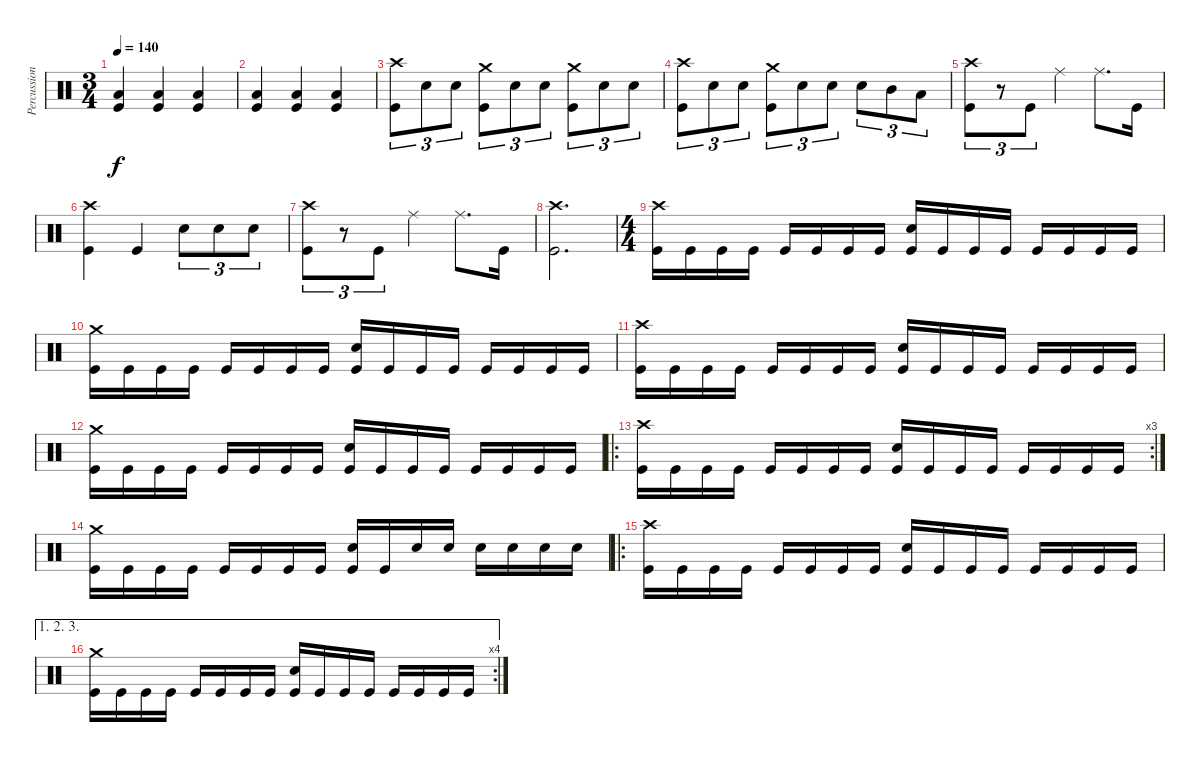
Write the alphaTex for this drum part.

\track ("Percussion" "Percussion") {instrument percussion}
\staff {score}
\articulation defaults
\ts (3 4)
\tempo 140
\clef neutral
\ks c
("Low Tom (hit)" "Kick (hit)").4{dy f} ("Low Tom (hit)" "Kick (hit)").4 ("Low Tom (hit)" "Kick (hit)").4 |
("Low Tom (hit)" "Kick (hit)").4 ("Low Tom (hit)" "Kick (hit)").4 ("Low Tom (hit)" "Kick (hit)").4 |
("Crash high (hit)" "Kick (hit)").8{tu (3 2)} "Snare (hit) 2".8{tu (3 2)} "Snare (hit) 2".8{tu (3 2)} ("Crash medium (hit)" "Kick (hit)").8{tu (3 2)} "Snare (hit) 2".8{tu (3 2)} "Snare (hit) 2".8{tu (3 2)} ("Crash medium (hit)" "Kick (hit)").8{tu (3 2)} "Snare (hit) 2".8{tu (3 2)} "Snare (hit) 2".8{tu (3 2)} |
("Crash high (hit)" "Kick (hit)").8{tu (3 2)} "Snare (hit) 2".8{tu (3 2)} "Snare (hit) 2".8{tu (3 2)} ("Crash medium (hit)" "Kick (hit)").8{tu (3 2)} "Snare (hit) 2".8{tu (3 2)} "Snare (hit) 2".8{tu (3 2)} "Snare (hit) 2".8{tu (3 2)} "Mid Tom (hit)".8{tu (3 2)} "Low Tom (hit)".8{tu (3 2)} |
("Crash high (hit)" "Kick (hit)").8{tu (3 2)} r.8{tu (3 2)} "Kick (hit)".8{tu (3 2)} "Ride (middle)".4 "Ride (middle)".8{d} "Kick (hit)".16 |
("Crash high (hit)" "Kick (hit)").4 "Kick (hit)".4 "Snare (hit) 2".8{tu (3 2)} "Snare (hit) 2".8{tu (3 2)} "Snare (hit) 2".8{tu (3 2)} |
("Crash high (hit)" "Kick (hit)").8{tu (3 2)} r.8{tu (3 2)} "Kick (hit)".8{tu (3 2)} "Ride (middle)".4 "Ride (middle)".8{d} "Kick (hit)".16 |
("Crash high (hit)" "Kick (hit)").2{d} |
\ts (4 4)
("Crash high (hit)" "Kick (hit)").16 "Kick (hit)".16 "Kick (hit)".16 "Kick (hit)".16 "Kick (hit)".16 "Kick (hit)".16 "Kick (hit)".16 "Kick (hit)".16 ("Snare (hit) 2" "Kick (hit)").16 "Kick (hit)".16 "Kick (hit)".16 "Kick (hit)".16 "Kick (hit)".16 "Kick (hit)".16 "Kick (hit)".16 "Kick (hit)".16 |
("Crash medium (hit)" "Kick (hit)").16 "Kick (hit)".16 "Kick (hit)".16 "Kick (hit)".16 "Kick (hit)".16 "Kick (hit)".16 "Kick (hit)".16 "Kick (hit)".16 ("Snare (hit) 2" "Kick (hit)").16 "Kick (hit)".16 "Kick (hit)".16 "Kick (hit)".16 "Kick (hit)".16 "Kick (hit)".16 "Kick (hit)".16 "Kick (hit)".16 |
("Crash high (hit)" "Kick (hit)").16 "Kick (hit)".16 "Kick (hit)".16 "Kick (hit)".16 "Kick (hit)".16 "Kick (hit)".16 "Kick (hit)".16 "Kick (hit)".16 ("Snare (hit) 2" "Kick (hit)").16 "Kick (hit)".16 "Kick (hit)".16 "Kick (hit)".16 "Kick (hit)".16 "Kick (hit)".16 "Kick (hit)".16 "Kick (hit)".16 |
("Crash medium (hit)" "Kick (hit)").16 "Kick (hit)".16 "Kick (hit)".16 "Kick (hit)".16 "Kick (hit)".16 "Kick (hit)".16 "Kick (hit)".16 "Kick (hit)".16 ("Snare (hit) 2" "Kick (hit)").16 "Kick (hit)".16 "Kick (hit)".16 "Kick (hit)".16 "Kick (hit)".16 "Kick (hit)".16 "Kick (hit)".16 "Kick (hit)".16 |
\ro
\rc 3
("Crash high (hit)" "Kick (hit)").16 "Kick (hit)".16 "Kick (hit)".16 "Kick (hit)".16 "Kick (hit)".16 "Kick (hit)".16 "Kick (hit)".16 "Kick (hit)".16 ("Snare (hit) 2" "Kick (hit)").16 "Kick (hit)".16 "Kick (hit)".16 "Kick (hit)".16 "Kick (hit)".16 "Kick (hit)".16 "Kick (hit)".16 "Kick (hit)".16 |
("Crash medium (hit)" "Kick (hit)").16 "Kick (hit)".16 "Kick (hit)".16 "Kick (hit)".16 "Kick (hit)".16 "Kick (hit)".16 "Kick (hit)".16 "Kick (hit)".16 ("Snare (hit) 2" "Kick (hit)").16 "Kick (hit)".16 "Snare (hit) 2".16 "Snare (hit) 2".16 "Snare (hit) 2".16 "Snare (hit) 2".16 "Snare (hit) 2".16 "Snare (hit) 2".16 |
\ro
("Crash high (hit)" "Kick (hit)").16 "Kick (hit)".16 "Kick (hit)".16 "Kick (hit)".16 "Kick (hit)".16 "Kick (hit)".16 "Kick (hit)".16 "Kick (hit)".16 ("Snare (hit) 2" "Kick (hit)").16 "Kick (hit)".16 "Kick (hit)".16 "Kick (hit)".16 "Kick (hit)".16 "Kick (hit)".16 "Kick (hit)".16 "Kick (hit)".16 |
\ae (1 2 3)
\rc 4
("Crash medium (hit)" "Kick (hit)").16 "Kick (hit)".16 "Kick (hit)".16 "Kick (hit)".16 "Kick (hit)".16 "Kick (hit)".16 "Kick (hit)".16 "Kick (hit)".16 ("Snare (hit) 2" "Kick (hit)").16 "Kick (hit)".16 "Kick (hit)".16 "Kick (hit)".16 "Kick (hit)".16 "Kick (hit)".16 "Kick (hit)".16 "Kick (hit)".16
